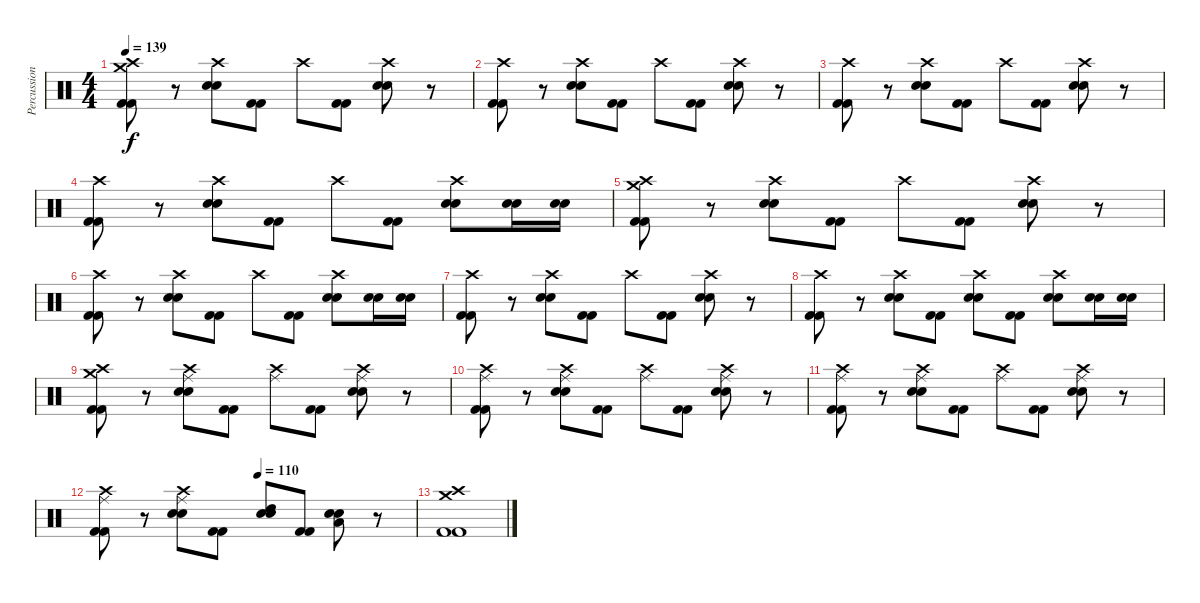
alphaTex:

\track ("Percussioni" "Percussion") {instrument percussion}
\staff {score}
\articulation defaults
\ts (4 4)
\tempo 139
\clef neutral
\ks c
("Crash medium (hit)" "Crash high (hit)" "Kick (hit) 2" "Kick (hit) 2").8{dy f} r.8 ("Crash high (hit)" "Electric Snare (hit)" "Snare (hit) 2").8 ("Kick (hit) 2" "Kick (hit) 2").8 "Crash high (hit)".8 ("Kick (hit) 2" "Kick (hit) 2").8 ("Crash high (hit)" "Electric Snare (hit)" "Snare (hit) 2").8 r.8 |
("Crash high (hit)" "Kick (hit) 2" "Kick (hit) 2").8 r.8 ("Crash high (hit)" "Electric Snare (hit)" "Snare (hit) 2").8 ("Kick (hit) 2" "Kick (hit) 2").8 "Crash high (hit)".8 ("Kick (hit) 2" "Kick (hit) 2").8 ("Crash high (hit)" "Electric Snare (hit)" "Snare (hit) 2").8 r.8 |
("Crash high (hit)" "Kick (hit) 2" "Kick (hit) 2").8 r.8 ("Crash high (hit)" "Electric Snare (hit)" "Snare (hit) 2").8 ("Kick (hit) 2" "Kick (hit) 2").8 "Crash high (hit)".8 ("Kick (hit) 2" "Kick (hit) 2").8 ("Crash high (hit)" "Electric Snare (hit)" "Snare (hit) 2").8 r.8 |
("Crash high (hit)" "Kick (hit) 2" "Kick (hit) 2").8 r.8 ("Crash high (hit)" "Electric Snare (hit)" "Snare (hit) 2").8 ("Kick (hit) 2" "Kick (hit) 2").8 "Crash high (hit)".8 ("Kick (hit) 2" "Kick (hit) 2").8 ("Crash high (hit)" "Electric Snare (hit)" "Snare (hit) 2").8 ("Snare (hit) 2" "Electric Snare (hit)").16 ("Snare (hit) 2" "Electric Snare (hit)").16 |
("Crash medium (hit)" "Crash high (hit)" "Kick (hit) 2" "Kick (hit) 2").8 r.8 ("Crash high (hit)" "Electric Snare (hit)" "Snare (hit) 2").8 ("Kick (hit) 2" "Kick (hit) 2").8 "Crash high (hit)".8 ("Kick (hit) 2" "Kick (hit) 2").8 ("Crash high (hit)" "Electric Snare (hit)" "Snare (hit) 2").8 r.8 |
("Crash high (hit)" "Kick (hit) 2" "Kick (hit) 2").8 r.8 ("Crash high (hit)" "Electric Snare (hit)" "Snare (hit) 2").8 ("Kick (hit) 2" "Kick (hit) 2").8 "Crash high (hit)".8 ("Kick (hit) 2" "Kick (hit) 2").8 ("Crash high (hit)" "Electric Snare (hit)" "Snare (hit) 2").8 ("Snare (hit) 2" "Electric Snare (hit)").16 ("Snare (hit) 2" "Electric Snare (hit)").16 |
("Crash high (hit)" "Kick (hit) 2" "Kick (hit) 2").8 r.8 ("Crash high (hit)" "Electric Snare (hit)" "Snare (hit) 2").8 ("Kick (hit) 2" "Kick (hit) 2").8 "Crash high (hit)".8 ("Kick (hit) 2" "Kick (hit) 2").8 ("Crash high (hit)" "Electric Snare (hit)" "Snare (hit) 2").8 r.8 |
("Crash high (hit)" "Kick (hit) 2" "Kick (hit) 2").8 r.8 ("Crash high (hit)" "Electric Snare (hit)" "Snare (hit) 2").8 ("Kick (hit) 2" "Kick (hit) 2").8 ("Crash high (hit)" "Snare (hit) 2" "Electric Snare (hit)").8 ("Kick (hit) 2" "Kick (hit) 2").8 ("Crash high (hit)" "Electric Snare (hit)" "Snare (hit) 2").8 ("Snare (hit) 2" "Electric Snare (hit)").16 ("Snare (hit) 2" "Electric Snare (hit)").16 |
("Crash medium (hit)" "Crash high (hit)" "Kick (hit) 2" "Kick (hit) 2").8 r.8 ("Crash high (hit)" "Ride (middle)" "Electric Snare (hit)" "Snare (hit) 2").8 ("Kick (hit) 2" "Kick (hit) 2").8 ("Crash high (hit)" "Ride (middle)").8 ("Kick (hit) 2" "Kick (hit) 2").8 ("Crash high (hit)" "Ride (middle)" "Electric Snare (hit)" "Snare (hit) 2").8 r.8 |
("Ride (middle)" "Crash high (hit)" "Kick (hit) 2" "Kick (hit) 2").8 r.8 ("Crash high (hit)" "Ride (middle)" "Electric Snare (hit)" "Snare (hit) 2").8 ("Kick (hit) 2" "Kick (hit) 2").8 ("Crash high (hit)" "Ride (middle)").8 ("Kick (hit) 2" "Kick (hit) 2").8 ("Crash high (hit)" "Ride (middle)" "Electric Snare (hit)" "Snare (hit) 2").8 r.8 |
("Ride (middle)" "Crash high (hit)" "Kick (hit) 2" "Kick (hit) 2").8 r.8 ("Crash high (hit)" "Ride (middle)" "Electric Snare (hit)" "Snare (hit) 2").8 ("Kick (hit) 2" "Kick (hit) 2").8 ("Crash high (hit)" "Ride (middle)").8 ("Kick (hit) 2" "Kick (hit) 2").8 ("Crash high (hit)" "Ride (middle)" "Electric Snare (hit)" "Snare (hit) 2").8 r.8 |
\tempo (110 0.5)
("Ride (middle)" "Crash high (hit)" "Kick (hit) 2" "Kick (hit) 2").8 r.8 ("Crash high (hit)" "Ride (middle)" "Electric Snare (hit)" "Snare (hit) 2").8 ("Kick (hit) 2" "Kick (hit) 2").8 ("High Tom (hit)" "Snare (hit) 2" "Electric Snare (hit)").8 ("Kick (hit) 2" "Kick (hit) 2").8 ("Low Tom (hit)" "Electric Snare (hit)" "Snare (hit) 2").8 r.8 |
("Crash high (hit)" "Crash medium (hit)" "Kick (hit) 2" "Kick (hit) 2").1
